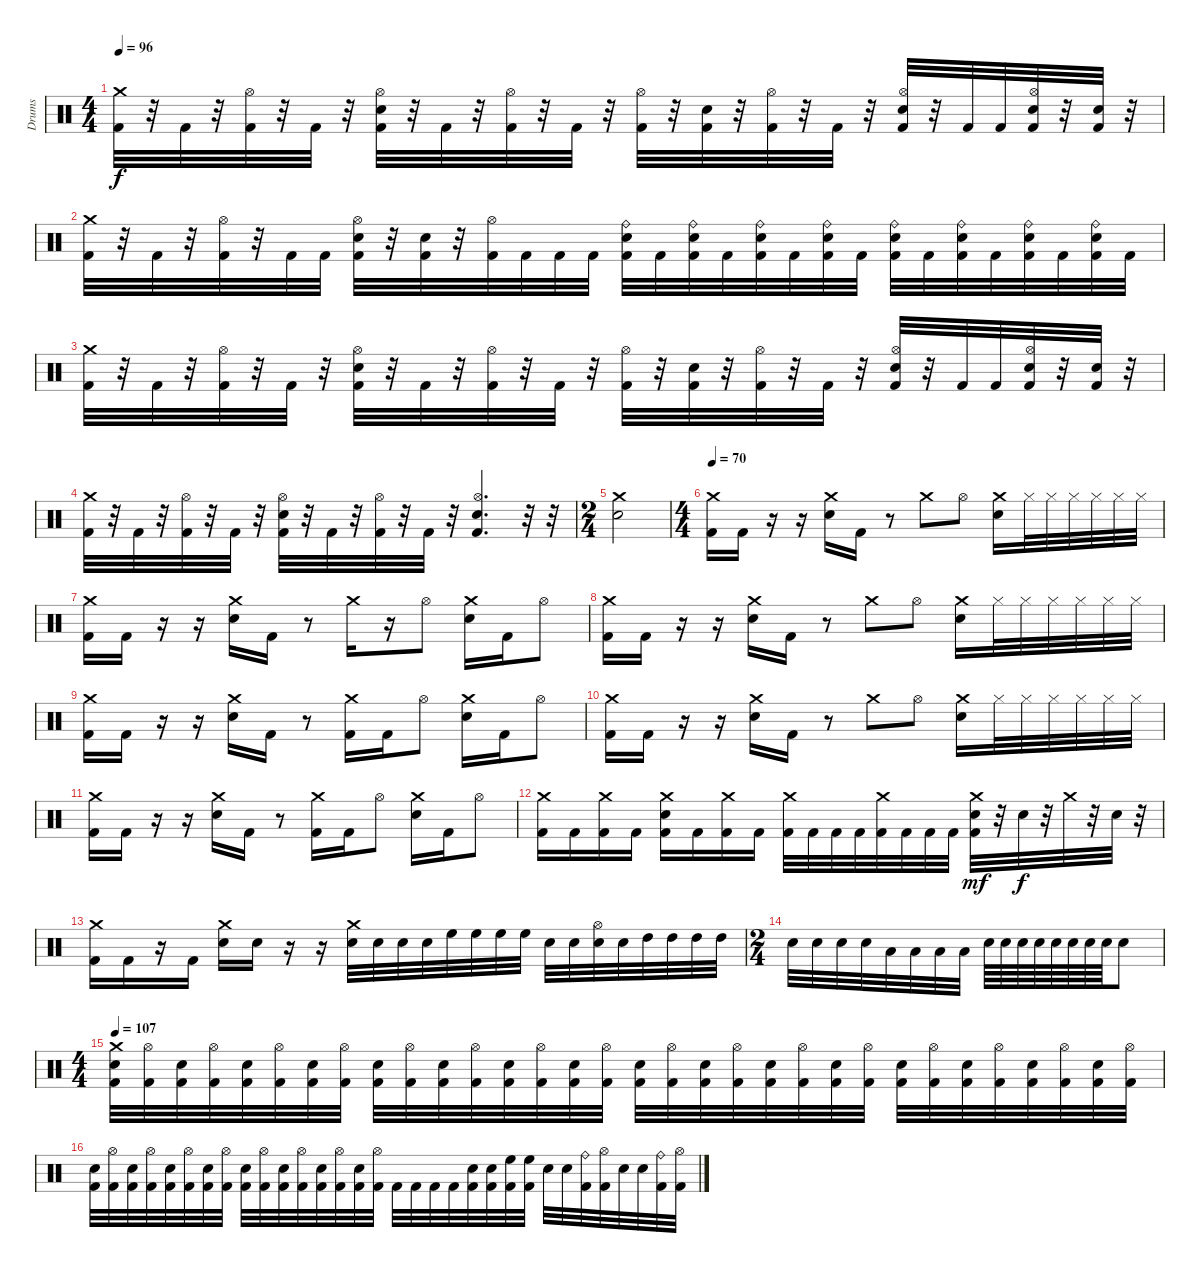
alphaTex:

\track ("Drums" "Drums") {instrument percussion}
\staff {score}
\articulation defaults
\ts (4 4)
\tempo 96
\clef neutral
\ks c
("Crash medium (hit)" "Kick (hit) 2").32{dy f} r.32 "Kick (hit) 2".32 r.32 ("Hi-Hat (open)" "Kick (hit) 2").32 r.32 "Kick (hit) 2".32 r.32 ("Hi-Hat (open)" "Electric Snare (hit)" "Kick (hit) 2").32 r.32 "Kick (hit) 2".32 r.32 ("Hi-Hat (open)" "Kick (hit) 2").32 r.32 "Kick (hit) 2".32 r.32 ("Hi-Hat (open)" "Kick (hit) 2").32 r.32 ("Electric Snare (hit)" "Kick (hit) 2").32 r.32 ("Hi-Hat (open)" "Kick (hit) 2").32 r.32 "Kick (hit) 2".32 r.32 ("Hi-Hat (open)" "Electric Snare (hit)" "Kick (hit) 2").32 r.32 "Kick (hit) 2".32 "Kick (hit) 2".32 ("Hi-Hat (open)" "Electric Snare (hit)" "Kick (hit) 2").32 r.32 ("Electric Snare (hit)" "Kick (hit) 2").32 r.32 |
("Crash medium (hit)" "Kick (hit) 2").32 r.32 "Kick (hit) 2".32 r.32 ("Hi-Hat (open)" "Kick (hit) 2").32 r.32 "Kick (hit) 2".32 "Kick (hit) 2".32 ("Hi-Hat (open)" "Electric Snare (hit)" "Kick (hit) 2").32 r.32 ("Electric Snare (hit)" "Kick (hit) 2").32 r.32 ("Hi-Hat (open)" "Kick (hit) 2").32 "Kick (hit) 2".32 "Kick (hit) 2".32 "Kick (hit) 2".32 ("Ride (bell)" "Electric Snare (hit)" "Kick (hit) 2").32 "Kick (hit) 2".32 ("Ride (bell)" "Electric Snare (hit)" "Kick (hit) 2").32 "Kick (hit) 2".32 ("Ride (bell)" "Electric Snare (hit)" "Kick (hit) 2").32 "Kick (hit) 2".32 ("Ride (bell)" "Electric Snare (hit)" "Kick (hit) 2").32 "Kick (hit) 2".32 ("Ride (bell)" "Electric Snare (hit)" "Kick (hit) 2").32 "Kick (hit) 2".32 ("Ride (bell)" "Electric Snare (hit)" "Kick (hit) 2").32 "Kick (hit) 2".32 ("Ride (bell)" "Electric Snare (hit)" "Kick (hit) 2").32 "Kick (hit) 2".32 ("Ride (bell)" "Electric Snare (hit)" "Kick (hit) 2").32 "Kick (hit) 2".32 |
("Crash medium (hit)" "Kick (hit) 2").32 r.32 "Kick (hit) 2".32 r.32 ("Hi-Hat (open)" "Kick (hit) 2").32 r.32 "Kick (hit) 2".32 r.32 ("Hi-Hat (open)" "Electric Snare (hit)" "Kick (hit) 2").32 r.32 "Kick (hit) 2".32 r.32 ("Hi-Hat (open)" "Kick (hit) 2").32 r.32 "Kick (hit) 2".32 r.32 ("Hi-Hat (open)" "Kick (hit) 2").32 r.32 ("Electric Snare (hit)" "Kick (hit) 2").32 r.32 ("Hi-Hat (open)" "Kick (hit) 2").32 r.32 "Kick (hit) 2".32 r.32 ("Hi-Hat (open)" "Electric Snare (hit)" "Kick (hit) 2").32 r.32 "Kick (hit) 2".32 "Kick (hit) 2".32 ("Hi-Hat (open)" "Electric Snare (hit)" "Kick (hit) 2").32 r.32 ("Electric Snare (hit)" "Kick (hit) 2").32 r.32 |
("Crash medium (hit)" "Kick (hit) 2").32 r.32 "Kick (hit) 2".32 r.32 ("Hi-Hat (open)" "Kick (hit) 2").32 r.32 "Kick (hit) 2".32 r.32 ("Hi-Hat (open)" "Electric Snare (hit)" "Kick (hit) 2").32 r.32 "Kick (hit) 2".32 r.32 ("Hi-Hat (open)" "Kick (hit) 2").32 r.32 "Kick (hit) 2".32 r.32 ("Hi-Hat (open)" "Electric Snare (hit)" "Kick (hit) 2").4{d} r.32 r.32 |
\ts (2 4)
("Crash medium (hit)" "Electric Snare (hit)").2 |
\ts (4 4)
\tempo 70
("Crash medium (hit)" "Kick (hit) 2").16 "Kick (hit) 2".16 r.16 r.16 ("Crash medium (hit)" "Electric Snare (hit)").16 "Kick (hit) 2".16 r.8 "Crash medium (hit)".8 "Hi-Hat (open)".8 ("Crash medium (hit)" "Electric Snare (hit)").16 "Hi-Hat (closed)".32 "Hi-Hat (closed)".32 "Hi-Hat (closed)".32 "Hi-Hat (closed)".32 "Hi-Hat (closed)".32 "Hi-Hat (closed)".32 |
("Crash medium (hit)" "Kick (hit) 2").16 "Kick (hit) 2".16 r.16 r.16 ("Crash medium (hit)" "Electric Snare (hit)").16 "Kick (hit) 2".16 r.8 "Crash medium (hit)".16 r.16 "Hi-Hat (open)".8 ("Crash medium (hit)" "Electric Snare (hit)").16 "Kick (hit) 2".16 "Hi-Hat (open)".8 |
("Crash medium (hit)" "Kick (hit) 2").16 "Kick (hit) 2".16 r.16 r.16 ("Crash medium (hit)" "Electric Snare (hit)").16 "Kick (hit) 2".16 r.8 "Crash medium (hit)".8 "Hi-Hat (open)".8 ("Crash medium (hit)" "Electric Snare (hit)").16 "Hi-Hat (closed)".32 "Hi-Hat (closed)".32 "Hi-Hat (closed)".32 "Hi-Hat (closed)".32 "Hi-Hat (closed)".32 "Hi-Hat (closed)".32 |
("Crash medium (hit)" "Kick (hit) 2").16 "Kick (hit) 2".16 r.16 r.16 ("Crash medium (hit)" "Electric Snare (hit)").16 "Kick (hit) 2".16 r.8 ("Crash medium (hit)" "Kick (hit) 2").16 "Kick (hit) 2".16 "Hi-Hat (open)".8 ("Crash medium (hit)" "Electric Snare (hit)").16 "Kick (hit) 2".16 "Hi-Hat (open)".8 |
("Crash medium (hit)" "Kick (hit) 2").16 "Kick (hit) 2".16 r.16 r.16 ("Crash medium (hit)" "Electric Snare (hit)").16 "Kick (hit) 2".16 r.8 "Crash medium (hit)".8 "Hi-Hat (open)".8 ("Crash medium (hit)" "Electric Snare (hit)").16 "Hi-Hat (closed)".32 "Hi-Hat (closed)".32 "Hi-Hat (closed)".32 "Hi-Hat (closed)".32 "Hi-Hat (closed)".32 "Hi-Hat (closed)".32 |
("Crash medium (hit)" "Kick (hit) 2").16 "Kick (hit) 2".16 r.16 r.16 ("Crash medium (hit)" "Electric Snare (hit)").16 "Kick (hit) 2".16 r.8 ("Crash medium (hit)" "Kick (hit) 2").16 "Kick (hit) 2".16 "Hi-Hat (open)".8 ("Crash medium (hit)" "Electric Snare (hit)").16 "Kick (hit) 2".16 "Hi-Hat (open)".8 |
("Crash medium (hit)" "Kick (hit) 2").16 "Kick (hit) 2".16 ("Crash medium (hit)" "Kick (hit) 2").16 "Kick (hit) 2".16 ("Crash medium (hit)" "Electric Snare (hit)" "Kick (hit) 2").16 "Kick (hit) 2".16 ("Crash medium (hit)" "Kick (hit) 2").16 "Kick (hit) 2".16 ("Crash medium (hit)" "Kick (hit) 2").32 "Kick (hit) 2".32 "Kick (hit) 2".32 "Kick (hit) 2".32 ("Crash medium (hit)" "Kick (hit) 2").32 "Kick (hit) 2".32 "Kick (hit) 2".32 "Kick (hit) 2".32 ("Crash medium (hit)" "Electric Snare (hit)" "Kick (hit) 2").32{dy mf} r.32 "Electric Snare (hit)".32{dy f} r.32 "Crash medium (hit)".32 r.32 "Electric Snare (hit)".32 r.32 |
("Crash medium (hit)" "Kick (hit) 2").16 "Kick (hit) 2".16 r.16 "Kick (hit) 2".16 ("Crash medium (hit)" "Electric Snare (hit)").16 "Electric Snare (hit)".16 r.16 r.16 ("Crash medium (hit)" "Electric Snare (hit)").32 "Electric Snare (hit)".32 "Electric Snare (hit)".32 "Electric Snare (hit)".32 "High Floor Tom (hit)".32 "High Floor Tom (hit)".32 "High Floor Tom (hit)".32 "High Floor Tom (hit)".32 "Electric Snare (hit)".32 "Electric Snare (hit)".32 ("Hi-Hat (open)" "Electric Snare (hit)").32 "Electric Snare (hit)".32 "High Tom (hit)".32 "High Tom (hit)".32 "High Tom (hit)".32 "High Tom (hit)".32 |
\ts (2 4)
"Electric Snare (hit)".32 "Electric Snare (hit)".32 "Electric Snare (hit)".32 "Electric Snare (hit)".32 "Low Tom (hit)".32 "Low Tom (hit)".32 "Low Tom (hit)".32 "Low Tom (hit)".32 "Electric Snare (hit)".64 "Electric Snare (hit)".64 "Electric Snare (hit)".64 "Electric Snare (hit)".64 "Electric Snare (hit)".64 "Electric Snare (hit)".64 "Electric Snare (hit)".64 "Electric Snare (hit)".64 "Electric Snare (hit)".8 |
\ts (4 4)
\tempo 107
("Crash medium (hit)" "Electric Snare (hit)" "Kick (hit) 2").32 ("Hi-Hat (open)" "Kick (hit) 2").32 ("Electric Snare (hit)" "Kick (hit) 2").32 ("Hi-Hat (open)" "Kick (hit) 2").32 ("Electric Snare (hit)" "Kick (hit) 2").32 ("Hi-Hat (open)" "Kick (hit) 2").32 ("Electric Snare (hit)" "Kick (hit) 2").32 ("Hi-Hat (open)" "Kick (hit) 2").32 ("Electric Snare (hit)" "Kick (hit) 2").32 ("Hi-Hat (open)" "Kick (hit) 2").32 ("Electric Snare (hit)" "Kick (hit) 2").32 ("Hi-Hat (open)" "Kick (hit) 2").32 ("Electric Snare (hit)" "Kick (hit) 2").32 ("Hi-Hat (open)" "Kick (hit) 2").32 ("Electric Snare (hit)" "Kick (hit) 2").32 ("Hi-Hat (open)" "Kick (hit) 2").32 ("Electric Snare (hit)" "Kick (hit) 2").32 ("Hi-Hat (open)" "Kick (hit) 2").32 ("Electric Snare (hit)" "Kick (hit) 2").32 ("Hi-Hat (open)" "Kick (hit) 2").32 ("Electric Snare (hit)" "Kick (hit) 2").32 ("Hi-Hat (open)" "Kick (hit) 2").32 ("Electric Snare (hit)" "Kick (hit) 2").32 ("Hi-Hat (open)" "Kick (hit) 2").32 ("Electric Snare (hit)" "Kick (hit) 2").32 ("Hi-Hat (open)" "Kick (hit) 2").32 ("Electric Snare (hit)" "Kick (hit) 2").32 ("Hi-Hat (open)" "Kick (hit) 2").32 ("Electric Snare (hit)" "Kick (hit) 2").32 ("Hi-Hat (open)" "Kick (hit) 2").32 ("Electric Snare (hit)" "Kick (hit) 2").32 ("Hi-Hat (open)" "Kick (hit) 2").32 |
("Electric Snare (hit)" "Kick (hit) 2").32 ("Hi-Hat (open)" "Kick (hit) 2").32 ("Electric Snare (hit)" "Kick (hit) 2").32 ("Hi-Hat (open)" "Kick (hit) 2").32 ("Electric Snare (hit)" "Kick (hit) 2").32 ("Hi-Hat (open)" "Kick (hit) 2").32 ("Electric Snare (hit)" "Kick (hit) 2").32 ("Hi-Hat (open)" "Kick (hit) 2").32 ("Electric Snare (hit)" "Kick (hit) 2").32 ("Hi-Hat (open)" "Kick (hit) 2").32 ("Electric Snare (hit)" "Kick (hit) 2").32 ("Hi-Hat (open)" "Kick (hit) 2").32 ("Electric Snare (hit)" "Kick (hit) 2").32 ("Hi-Hat (open)" "Kick (hit) 2").32 ("Electric Snare (hit)" "Kick (hit) 2").32 ("Hi-Hat (open)" "Kick (hit) 2").32 "Kick (hit) 2".32 "Kick (hit) 2".32 "Kick (hit) 2".32 "Kick (hit) 2".32 ("Electric Snare (hit)" "Kick (hit) 2").32 ("Electric Snare (hit)" "Kick (hit) 2").32 ("High Floor Tom (hit)" "Kick (hit) 2").32 ("High Floor Tom (hit)" "Kick (hit) 2").32 "Electric Snare (hit)".32 "Electric Snare (hit)".32 ("Ride (bell)" "Kick (hit) 2").32 ("Hi-Hat (open)" "Kick (hit) 2").32 "Electric Snare (hit)".32 "Electric Snare (hit)".32 ("Ride (bell)" "Kick (hit) 2").32 ("Hi-Hat (open)" "Kick (hit) 2").32
